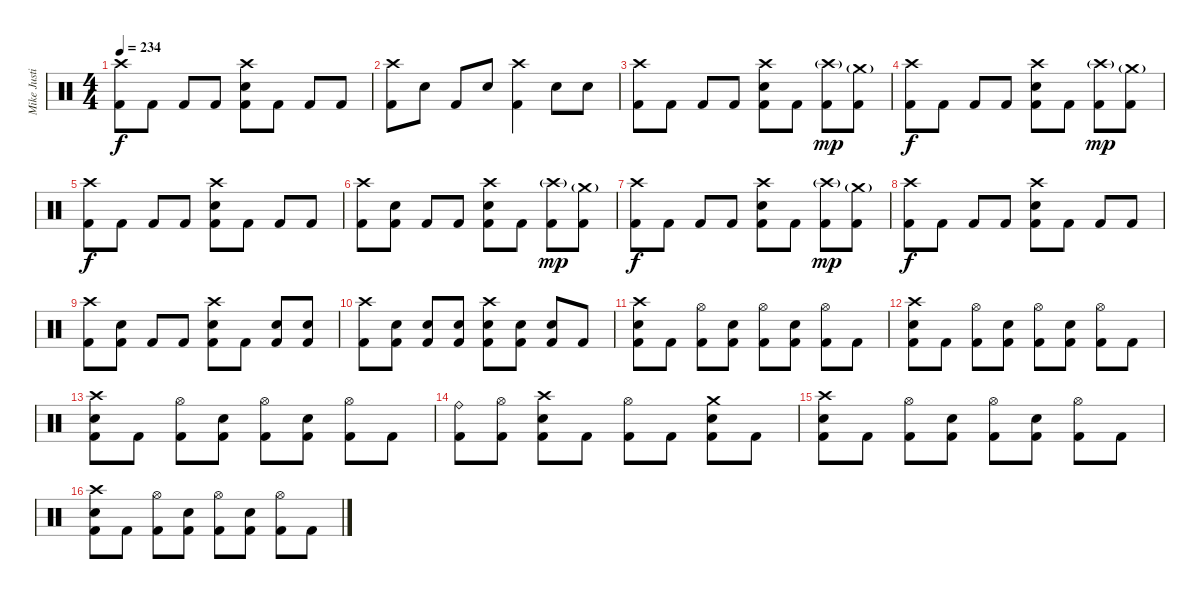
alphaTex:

\track ("Mike Justian (Drums)" "Mike Justi") {instrument percussion}
\staff {score}
\articulation defaults
\ts (4 4)
\tempo 234
\clef neutral
\ks c
("Crash high (hit)" "Kick (hit) 2").8{dy f} "Kick (hit) 2".8 "Kick (hit) 2".8 "Kick (hit) 2".8 ("Kick (hit) 2" "Crash high (hit)" "Snare (hit) 2").8 "Kick (hit) 2".8 "Kick (hit) 2".8 "Kick (hit) 2".8 |
("Crash high (hit)" "Kick (hit) 2").8 "Snare (hit) 2".8 "Kick (hit) 2".8 "Snare (hit) 2".8 ("Crash high (hit)" "Kick (hit) 2").4 "Snare (hit) 2".8 "Snare (hit) 2".8 |
("Crash high (hit)" "Kick (hit) 2").8 "Kick (hit) 2".8 "Kick (hit) 2".8 "Kick (hit) 2".8 ("Kick (hit) 2" "Crash high (hit)" "Snare (hit) 2").8 "Kick (hit) 2".8 ("Crash high (hit)"{g} "Kick (hit) 2").8{dy mp} ("Crash medium (hit)"{g} "Kick (hit) 2").8 |
("Crash high (hit)" "Kick (hit) 2").8{dy f} "Kick (hit) 2".8 "Kick (hit) 2".8 "Kick (hit) 2".8 ("Kick (hit) 2" "Crash high (hit)" "Snare (hit) 2").8 "Kick (hit) 2".8 ("Crash high (hit)"{g} "Kick (hit) 2").8{dy mp} ("Crash medium (hit)"{g} "Kick (hit) 2").8 |
("Crash high (hit)" "Kick (hit) 2").8{dy f} "Kick (hit) 2".8 "Kick (hit) 2".8 "Kick (hit) 2".8 ("Kick (hit) 2" "Crash high (hit)" "Snare (hit) 2").8 "Kick (hit) 2".8 "Kick (hit) 2".8 "Kick (hit) 2".8 |
("Crash high (hit)" "Kick (hit) 2").8 ("Snare (hit) 2" "Kick (hit) 2").8 "Kick (hit) 2".8 "Kick (hit) 2".8 ("Kick (hit) 2" "Crash high (hit)" "Snare (hit) 2").8 "Kick (hit) 2".8 ("Crash high (hit)"{g} "Kick (hit) 2").8{dy mp} ("Crash medium (hit)"{g} "Kick (hit) 2").8 |
("Crash high (hit)" "Kick (hit) 2").8{dy f} "Kick (hit) 2".8 "Kick (hit) 2".8 "Kick (hit) 2".8 ("Kick (hit) 2" "Crash high (hit)" "Snare (hit) 2").8 "Kick (hit) 2".8 ("Crash high (hit)"{g} "Kick (hit) 2").8{dy mp} ("Crash medium (hit)"{g} "Kick (hit) 2").8 |
("Crash high (hit)" "Kick (hit) 2").8{dy f} "Kick (hit) 2".8 "Kick (hit) 2".8 "Kick (hit) 2".8 ("Kick (hit) 2" "Crash high (hit)" "Snare (hit) 2").8 "Kick (hit) 2".8 "Kick (hit) 2".8 "Kick (hit) 2".8 |
("Crash high (hit)" "Kick (hit) 2").8 ("Snare (hit) 2" "Kick (hit) 2").8 "Kick (hit) 2".8 "Kick (hit) 2".8 ("Crash high (hit)" "Snare (hit) 2" "Kick (hit) 2").8 "Kick (hit) 2".8 ("Snare (hit) 2" "Kick (hit) 2").8 ("Snare (hit) 2" "Kick (hit) 2").8 |
("Crash high (hit)" "Kick (hit) 2").8 ("Snare (hit) 2" "Kick (hit) 2").8 ("Snare (hit) 2" "Kick (hit) 2").8 ("Snare (hit) 2" "Kick (hit) 2").8 ("Kick (hit) 2" "Crash high (hit)" "Snare (hit) 2").8 ("Snare (hit) 2" "Kick (hit) 2").8 ("Snare (hit) 2" "Kick (hit) 2").8 "Kick (hit) 2".8 |
("Crash high (hit)" "Kick (hit) 2" "Snare (hit) 2").8 "Kick (hit) 2".8 ("Hi-Hat (open)" "Kick (hit) 2").8 ("Kick (hit) 2" "Snare (hit) 2").8 ("Hi-Hat (open)" "Kick (hit) 2").8 ("Kick (hit) 2" "Snare (hit) 2").8 ("Hi-Hat (open)" "Kick (hit) 2").8 "Kick (hit) 2".8 |
("Crash high (hit)" "Kick (hit) 2" "Snare (hit) 2").8 "Kick (hit) 2".8 ("Hi-Hat (open)" "Kick (hit) 2").8 ("Kick (hit) 2" "Snare (hit) 2").8 ("Hi-Hat (open)" "Kick (hit) 2").8 ("Kick (hit) 2" "Snare (hit) 2").8 ("Hi-Hat (open)" "Kick (hit) 2").8 "Kick (hit) 2".8 |
("Crash high (hit)" "Kick (hit) 2" "Snare (hit) 2").8 "Kick (hit) 2".8 ("Hi-Hat (open)" "Kick (hit) 2").8 ("Kick (hit) 2" "Snare (hit) 2").8 ("Hi-Hat (open)" "Kick (hit) 2").8 ("Kick (hit) 2" "Snare (hit) 2").8 ("Hi-Hat (open)" "Kick (hit) 2").8 "Kick (hit) 2".8 |
("Ride (bell)" "Kick (hit) 2").8 ("Hi-Hat (open)" "Kick (hit) 2").8 ("Crash high (hit)" "Snare (hit) 2" "Kick (hit) 2").8 "Kick (hit) 2".8 ("Hi-Hat (open)" "Kick (hit) 2").8 "Kick (hit) 2".8 ("Kick (hit) 2" "Crash medium (hit)" "Snare (hit) 2").8 "Kick (hit) 2".8 |
("Crash high (hit)" "Kick (hit) 2" "Snare (hit) 2").8 "Kick (hit) 2".8 ("Hi-Hat (open)" "Kick (hit) 2").8 ("Kick (hit) 2" "Snare (hit) 2").8 ("Hi-Hat (open)" "Kick (hit) 2").8 ("Kick (hit) 2" "Snare (hit) 2").8 ("Hi-Hat (open)" "Kick (hit) 2").8 "Kick (hit) 2".8 |
("Crash high (hit)" "Kick (hit) 2" "Snare (hit) 2").8 "Kick (hit) 2".8 ("Hi-Hat (open)" "Kick (hit) 2").8 ("Kick (hit) 2" "Snare (hit) 2").8 ("Hi-Hat (open)" "Kick (hit) 2").8 ("Kick (hit) 2" "Snare (hit) 2").8 ("Hi-Hat (open)" "Kick (hit) 2").8 "Kick (hit) 2".8
